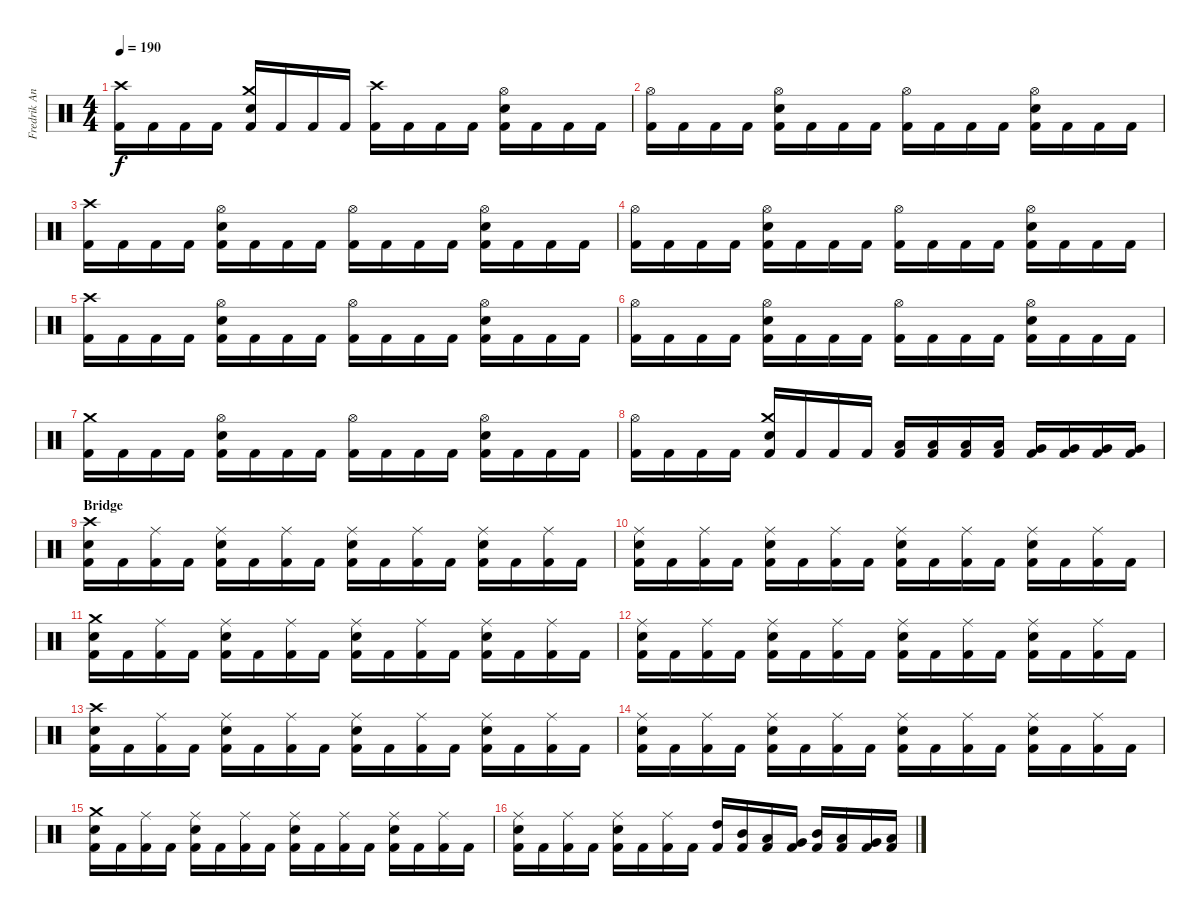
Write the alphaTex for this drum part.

\track ("Fredrik Andersson" "Fredrik An") {instrument percussion}
\staff {score}
\articulation defaults
\ts (4 4)
\section ("" "")
\tempo 190
\clef neutral
\ks c
("Crash high (hit)" "Kick (hit) 2").16{dy f} "Kick (hit) 2".16 "Kick (hit) 2".16 "Kick (hit) 2".16 ("Crash medium (hit)" "Electric Snare (hit)" "Kick (hit) 2").16 "Kick (hit) 2".16 "Kick (hit) 2".16 "Kick (hit) 2".16 ("Crash high (hit)" "Kick (hit) 2").16 "Kick (hit) 2".16 "Kick (hit) 2".16 "Kick (hit) 2".16 ("Hi-Hat (open)" "Electric Snare (hit)" "Kick (hit) 2").16 "Kick (hit) 2".16 "Kick (hit) 2".16 "Kick (hit) 2".16 |
("Hi-Hat (open)" "Kick (hit) 2").16 "Kick (hit) 2".16 "Kick (hit) 2".16 "Kick (hit) 2".16 ("Hi-Hat (open)" "Electric Snare (hit)" "Kick (hit) 2").16 "Kick (hit) 2".16 "Kick (hit) 2".16 "Kick (hit) 2".16 ("Hi-Hat (open)" "Kick (hit) 2").16 "Kick (hit) 2".16 "Kick (hit) 2".16 "Kick (hit) 2".16 ("Hi-Hat (open)" "Electric Snare (hit)" "Kick (hit) 2").16 "Kick (hit) 2".16 "Kick (hit) 2".16 "Kick (hit) 2".16 |
("Crash high (hit)" "Kick (hit) 2").16 "Kick (hit) 2".16 "Kick (hit) 2".16 "Kick (hit) 2".16 ("Hi-Hat (open)" "Electric Snare (hit)" "Kick (hit) 2").16 "Kick (hit) 2".16 "Kick (hit) 2".16 "Kick (hit) 2".16 ("Hi-Hat (open)" "Kick (hit) 2").16 "Kick (hit) 2".16 "Kick (hit) 2".16 "Kick (hit) 2".16 ("Hi-Hat (open)" "Electric Snare (hit)" "Kick (hit) 2").16 "Kick (hit) 2".16 "Kick (hit) 2".16 "Kick (hit) 2".16 |
("Hi-Hat (open)" "Kick (hit) 2").16 "Kick (hit) 2".16 "Kick (hit) 2".16 "Kick (hit) 2".16 ("Hi-Hat (open)" "Electric Snare (hit)" "Kick (hit) 2").16 "Kick (hit) 2".16 "Kick (hit) 2".16 "Kick (hit) 2".16 ("Hi-Hat (open)" "Kick (hit) 2").16 "Kick (hit) 2".16 "Kick (hit) 2".16 "Kick (hit) 2".16 ("Hi-Hat (open)" "Electric Snare (hit)" "Kick (hit) 2").16 "Kick (hit) 2".16 "Kick (hit) 2".16 "Kick (hit) 2".16 |
("Crash high (hit)" "Kick (hit) 2").16 "Kick (hit) 2".16 "Kick (hit) 2".16 "Kick (hit) 2".16 ("Hi-Hat (open)" "Electric Snare (hit)" "Kick (hit) 2").16 "Kick (hit) 2".16 "Kick (hit) 2".16 "Kick (hit) 2".16 ("Hi-Hat (open)" "Kick (hit) 2").16 "Kick (hit) 2".16 "Kick (hit) 2".16 "Kick (hit) 2".16 ("Hi-Hat (open)" "Electric Snare (hit)" "Kick (hit) 2").16 "Kick (hit) 2".16 "Kick (hit) 2".16 "Kick (hit) 2".16 |
("Hi-Hat (open)" "Kick (hit) 2").16 "Kick (hit) 2".16 "Kick (hit) 2".16 "Kick (hit) 2".16 ("Hi-Hat (open)" "Electric Snare (hit)" "Kick (hit) 2").16 "Kick (hit) 2".16 "Kick (hit) 2".16 "Kick (hit) 2".16 ("Hi-Hat (open)" "Kick (hit) 2").16 "Kick (hit) 2".16 "Kick (hit) 2".16 "Kick (hit) 2".16 ("Hi-Hat (open)" "Electric Snare (hit)" "Kick (hit) 2").16 "Kick (hit) 2".16 "Kick (hit) 2".16 "Kick (hit) 2".16 |
("Crash medium (hit)" "Kick (hit) 2").16 "Kick (hit) 2".16 "Kick (hit) 2".16 "Kick (hit) 2".16 ("Hi-Hat (open)" "Electric Snare (hit)" "Kick (hit) 2").16 "Kick (hit) 2".16 "Kick (hit) 2".16 "Kick (hit) 2".16 ("Hi-Hat (open)" "Kick (hit) 2").16 "Kick (hit) 2".16 "Kick (hit) 2".16 "Kick (hit) 2".16 ("Hi-Hat (open)" "Electric Snare (hit)" "Kick (hit) 2").16 "Kick (hit) 2".16 "Kick (hit) 2".16 "Kick (hit) 2".16 |
("Hi-Hat (open)" "Kick (hit) 2").16 "Kick (hit) 2".16 "Kick (hit) 2".16 "Kick (hit) 2".16 ("Crash medium (hit)" "Electric Snare (hit)" "Kick (hit) 2").16 "Kick (hit) 2".16 "Kick (hit) 2".16 "Kick (hit) 2".16 ("Low Tom (hit)" "Kick (hit) 2").16 ("Low Tom (hit)" "Kick (hit) 2").16 ("Low Tom (hit)" "Kick (hit) 2").16 ("Low Tom (hit)" "Kick (hit) 2").16 ("Very Low Tom (hit)" "Kick (hit) 2").16 ("Very Low Tom (hit)" "Kick (hit) 2").16 ("Very Low Tom (hit)" "Kick (hit) 2").16 ("Very Low Tom (hit)" "Kick (hit) 2").16 |
\section ("" "Bridge")
("Crash high (hit)" "Electric Snare (hit)" "Kick (hit) 2").16 "Kick (hit) 2".16 ("Ride (middle)" "Kick (hit) 2").16 "Kick (hit) 2".16 ("Ride (middle)" "Electric Snare (hit)" "Kick (hit) 2").16 "Kick (hit) 2".16 ("Ride (middle)" "Kick (hit) 2").16 "Kick (hit) 2".16 ("Ride (middle)" "Electric Snare (hit)" "Kick (hit) 2").16 "Kick (hit) 2".16 ("Ride (middle)" "Kick (hit) 2").16 "Kick (hit) 2".16 ("Ride (middle)" "Electric Snare (hit)" "Kick (hit) 2").16 "Kick (hit) 2".16 ("Ride (middle)" "Kick (hit) 2").16 "Kick (hit) 2".16 |
("Ride (middle)" "Electric Snare (hit)" "Kick (hit) 2").16 "Kick (hit) 2".16 ("Ride (middle)" "Kick (hit) 2").16 "Kick (hit) 2".16 ("Ride (middle)" "Electric Snare (hit)" "Kick (hit) 2").16 "Kick (hit) 2".16 ("Ride (middle)" "Kick (hit) 2").16 "Kick (hit) 2".16 ("Ride (middle)" "Electric Snare (hit)" "Kick (hit) 2").16 "Kick (hit) 2".16 ("Ride (middle)" "Kick (hit) 2").16 "Kick (hit) 2".16 ("Ride (middle)" "Electric Snare (hit)" "Kick (hit) 2").16 "Kick (hit) 2".16 ("Ride (middle)" "Kick (hit) 2").16 "Kick (hit) 2".16 |
("Crash medium (hit)" "Electric Snare (hit)" "Kick (hit) 2").16 "Kick (hit) 2".16 ("Ride (middle)" "Kick (hit) 2").16 "Kick (hit) 2".16 ("Ride (middle)" "Electric Snare (hit)" "Kick (hit) 2").16 "Kick (hit) 2".16 ("Ride (middle)" "Kick (hit) 2").16 "Kick (hit) 2".16 ("Ride (middle)" "Electric Snare (hit)" "Kick (hit) 2").16 "Kick (hit) 2".16 ("Ride (middle)" "Kick (hit) 2").16 "Kick (hit) 2".16 ("Ride (middle)" "Electric Snare (hit)" "Kick (hit) 2").16 "Kick (hit) 2".16 ("Ride (middle)" "Kick (hit) 2").16 "Kick (hit) 2".16 |
("Ride (middle)" "Electric Snare (hit)" "Kick (hit) 2").16 "Kick (hit) 2".16 ("Ride (middle)" "Kick (hit) 2").16 "Kick (hit) 2".16 ("Ride (middle)" "Electric Snare (hit)" "Kick (hit) 2").16 "Kick (hit) 2".16 ("Ride (middle)" "Kick (hit) 2").16 "Kick (hit) 2".16 ("Ride (middle)" "Electric Snare (hit)" "Kick (hit) 2").16 "Kick (hit) 2".16 ("Ride (middle)" "Kick (hit) 2").16 "Kick (hit) 2".16 ("Ride (middle)" "Electric Snare (hit)" "Kick (hit) 2").16 "Kick (hit) 2".16 ("Ride (middle)" "Kick (hit) 2").16 "Kick (hit) 2".16 |
("Crash high (hit)" "Electric Snare (hit)" "Kick (hit) 2").16 "Kick (hit) 2".16 ("Ride (middle)" "Kick (hit) 2").16 "Kick (hit) 2".16 ("Ride (middle)" "Electric Snare (hit)" "Kick (hit) 2").16 "Kick (hit) 2".16 ("Ride (middle)" "Kick (hit) 2").16 "Kick (hit) 2".16 ("Ride (middle)" "Electric Snare (hit)" "Kick (hit) 2").16 "Kick (hit) 2".16 ("Ride (middle)" "Kick (hit) 2").16 "Kick (hit) 2".16 ("Ride (middle)" "Electric Snare (hit)" "Kick (hit) 2").16 "Kick (hit) 2".16 ("Ride (middle)" "Kick (hit) 2").16 "Kick (hit) 2".16 |
("Ride (middle)" "Electric Snare (hit)" "Kick (hit) 2").16 "Kick (hit) 2".16 ("Ride (middle)" "Kick (hit) 2").16 "Kick (hit) 2".16 ("Ride (middle)" "Electric Snare (hit)" "Kick (hit) 2").16 "Kick (hit) 2".16 ("Ride (middle)" "Kick (hit) 2").16 "Kick (hit) 2".16 ("Ride (middle)" "Electric Snare (hit)" "Kick (hit) 2").16 "Kick (hit) 2".16 ("Ride (middle)" "Kick (hit) 2").16 "Kick (hit) 2".16 ("Ride (middle)" "Electric Snare (hit)" "Kick (hit) 2").16 "Kick (hit) 2".16 ("Ride (middle)" "Kick (hit) 2").16 "Kick (hit) 2".16 |
("Crash medium (hit)" "Electric Snare (hit)" "Kick (hit) 2").16 "Kick (hit) 2".16 ("Ride (middle)" "Kick (hit) 2").16 "Kick (hit) 2".16 ("Ride (middle)" "Electric Snare (hit)" "Kick (hit) 2").16 "Kick (hit) 2".16 ("Ride (middle)" "Kick (hit) 2").16 "Kick (hit) 2".16 ("Ride (middle)" "Electric Snare (hit)" "Kick (hit) 2").16 "Kick (hit) 2".16 ("Ride (middle)" "Kick (hit) 2").16 "Kick (hit) 2".16 ("Ride (middle)" "Electric Snare (hit)" "Kick (hit) 2").16 "Kick (hit) 2".16 ("Ride (middle)" "Kick (hit) 2").16 "Kick (hit) 2".16 |
("Ride (middle)" "Electric Snare (hit)" "Kick (hit) 2").16 "Kick (hit) 2".16 ("Ride (middle)" "Kick (hit) 2").16 "Kick (hit) 2".16 ("Ride (middle)" "Electric Snare (hit)" "Kick (hit) 2").16 "Kick (hit) 2".16 ("Ride (middle)" "Kick (hit) 2").16 "Kick (hit) 2".16 ("High Tom (hit)" "Kick (hit) 2").16 ("Mid Tom (hit)" "Kick (hit) 2").16 ("Low Tom (hit)" "Kick (hit) 2").16 ("Very Low Tom (hit)" "Kick (hit) 2").16 ("Mid Tom (hit)" "Kick (hit) 2").16 ("Low Tom (hit)" "Kick (hit) 2").16 ("Very Low Tom (hit)" "Kick (hit) 2").16 ("Low Floor Tom (hit)" "Kick (hit) 2").16
